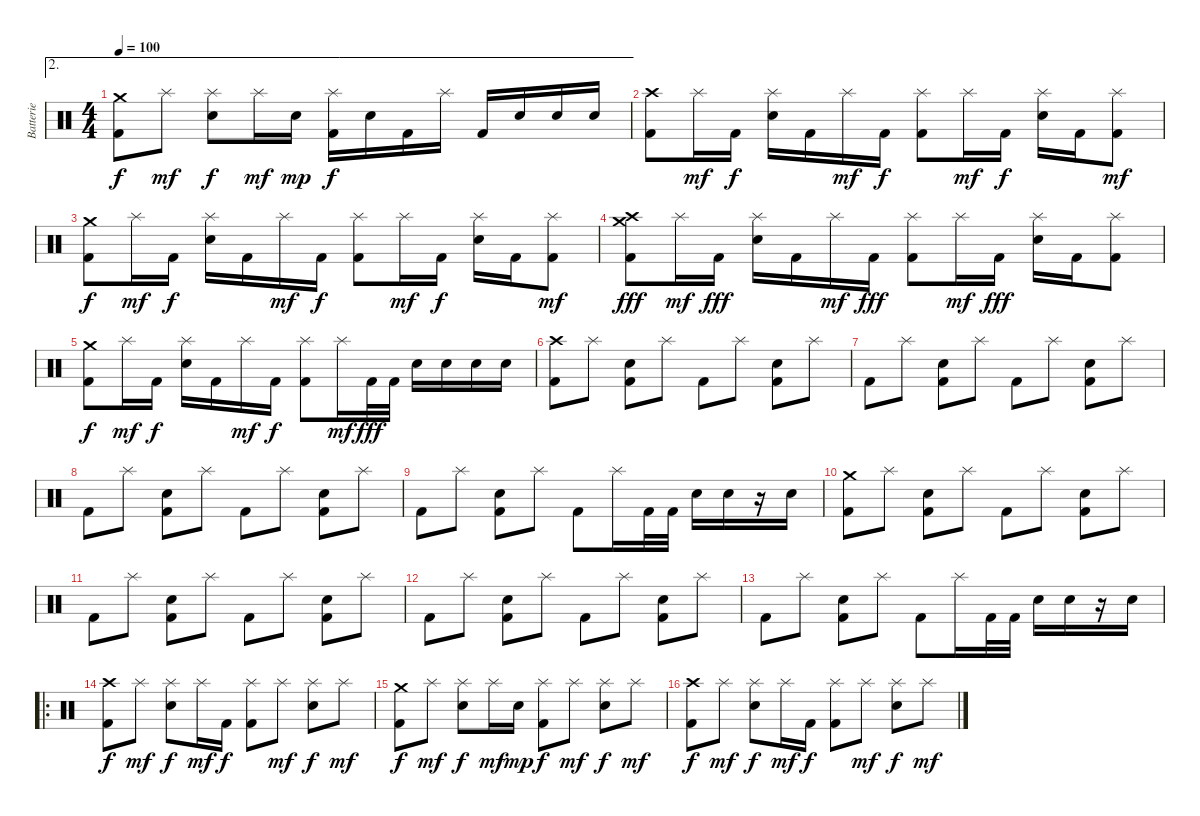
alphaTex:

\track ("Batterie" "Batterie") {instrument percussion}
\staff {score}
\articulation defaults
\ae 2
\ts (4 4)
\tempo 100
\clef neutral
\ks c
("Crash medium (hit)" "Kick (hit) 2").8{dy f} "Splash (hit)".8{dy mf} ("Splash (hit)" "Electric Snare (hit)").8{dy f} "Splash (hit)".16{dy mf} "Electric Snare (hit)".16{dy mp} ("Splash (hit)" "Kick (hit) 2").16{dy f} "Electric Snare (hit)".16 "Kick (hit) 2".16 "Splash (hit)".16 "Kick (hit) 2".16 "Electric Snare (hit)".16 "Electric Snare (hit)".16 "Electric Snare (hit)".16 |
("Crash high (hit)" "Kick (hit) 2").8 "Splash (hit)".16{dy mf} "Kick (hit) 2".16{dy f} ("Splash (hit)" "Electric Snare (hit)").16 "Kick (hit) 2".16 "Splash (hit)".16{dy mf} "Kick (hit) 2".16{dy f} ("Splash (hit)" "Kick (hit) 2").8 "Splash (hit)".16{dy mf} "Kick (hit) 2".16{dy f} ("Splash (hit)" "Electric Snare (hit)").16 "Kick (hit) 2".16 ("Splash (hit)" "Kick (hit) 2").8{dy mf} |
("Crash medium (hit)" "Kick (hit) 2").8{dy f} "Splash (hit)".16{dy mf} "Kick (hit) 2".16{dy f} ("Splash (hit)" "Electric Snare (hit)").16 "Kick (hit) 2".16 "Splash (hit)".16{dy mf} "Kick (hit) 2".16{dy f} ("Splash (hit)" "Kick (hit) 2").8 "Splash (hit)".16{dy mf} "Kick (hit) 2".16{dy f} ("Splash (hit)" "Electric Snare (hit)").16 "Kick (hit) 2".16 ("Splash (hit)" "Kick (hit) 2").8{dy mf} |
("Crash high (hit)" "Crash medium (hit)" "Kick (hit) 2").8{dy fff} "Splash (hit)".16{dy mf} "Kick (hit) 2".16{dy fff} ("Splash (hit)" "Electric Snare (hit)").16 "Kick (hit) 2".16 "Splash (hit)".16{dy mf} "Kick (hit) 2".16{dy fff} ("Splash (hit)" "Kick (hit) 2").8 "Splash (hit)".16{dy mf} "Kick (hit) 2".16{dy fff} ("Splash (hit)" "Electric Snare (hit)").16 "Kick (hit) 2".16 ("Splash (hit)" "Kick (hit) 2").8 |
("Crash medium (hit)" "Kick (hit) 2").8{dy f} "Splash (hit)".16{dy mf} "Kick (hit) 2".16{dy f} ("Splash (hit)" "Electric Snare (hit)").16 "Kick (hit) 2".16 "Splash (hit)".16{dy mf} "Kick (hit) 2".16{dy f} ("Splash (hit)" "Kick (hit) 2").8 "Splash (hit)".16{dy mf} "Kick (hit) 2".32{dy fff} "Kick (hit) 2".32 "Electric Snare (hit)".16 "Electric Snare (hit)".16 "Electric Snare (hit)".16 "Electric Snare (hit)".16 |
("Crash high (hit)" "Kick (hit) 2").8 "Splash (hit)".8 ("Electric Snare (hit)" "Kick (hit) 2").8 "Splash (hit)".8 "Kick (hit) 2".8 "Splash (hit)".8 ("Electric Snare (hit)" "Kick (hit) 2").8 "Splash (hit)".8 |
"Kick (hit) 2".8 "Splash (hit)".8 ("Electric Snare (hit)" "Kick (hit) 2").8 "Splash (hit)".8 "Kick (hit) 2".8 "Splash (hit)".8 ("Electric Snare (hit)" "Kick (hit) 2").8 "Splash (hit)".8 |
"Kick (hit) 2".8 "Splash (hit)".8 ("Electric Snare (hit)" "Kick (hit) 2").8 "Splash (hit)".8 "Kick (hit) 2".8 "Splash (hit)".8 ("Electric Snare (hit)" "Kick (hit) 2").8 "Splash (hit)".8 |
"Kick (hit) 2".8 "Splash (hit)".8 ("Electric Snare (hit)" "Kick (hit) 2").8 "Splash (hit)".8 "Kick (hit) 2".8 "Splash (hit)".16 "Kick (hit) 2".32 "Kick (hit) 2".32 "Electric Snare (hit)".16 "Electric Snare (hit)".16 r.16 "Electric Snare (hit)".16 |
("Crash medium (hit)" "Kick (hit) 2").8 "Splash (hit)".8 ("Electric Snare (hit)" "Kick (hit) 2").8 "Splash (hit)".8 "Kick (hit) 2".8 "Splash (hit)".8 ("Electric Snare (hit)" "Kick (hit) 2").8 "Splash (hit)".8 |
"Kick (hit) 2".8 "Splash (hit)".8 ("Electric Snare (hit)" "Kick (hit) 2").8 "Splash (hit)".8 "Kick (hit) 2".8 "Splash (hit)".8 ("Electric Snare (hit)" "Kick (hit) 2").8 "Splash (hit)".8 |
"Kick (hit) 2".8 "Splash (hit)".8 ("Electric Snare (hit)" "Kick (hit) 2").8 "Splash (hit)".8 "Kick (hit) 2".8 "Splash (hit)".8 ("Electric Snare (hit)" "Kick (hit) 2").8 "Splash (hit)".8 |
"Kick (hit) 2".8 "Splash (hit)".8 ("Electric Snare (hit)" "Kick (hit) 2").8 "Splash (hit)".8 "Kick (hit) 2".8 "Splash (hit)".16 "Kick (hit) 2".32 "Kick (hit) 2".32 "Electric Snare (hit)".16 "Electric Snare (hit)".16 r.16 "Electric Snare (hit)".16 |
\ro
("Crash high (hit)" "Kick (hit) 2").8{dy f} "Splash (hit)".8{dy mf} ("Splash (hit)" "Electric Snare (hit)").8{dy f} "Splash (hit)".16{dy mf} "Kick (hit) 2".16{dy f} ("Splash (hit)" "Kick (hit) 2").8 "Splash (hit)".8{dy mf} ("Splash (hit)" "Electric Snare (hit)").8{dy f} "Splash (hit)".8{dy mf} |
("Crash medium (hit)" "Kick (hit) 2").8{dy f} "Splash (hit)".8{dy mf} ("Splash (hit)" "Electric Snare (hit)").8{dy f} "Splash (hit)".16{dy mf} "Electric Snare (hit)".16{dy mp} ("Splash (hit)" "Kick (hit) 2").8{dy f} "Splash (hit)".8{dy mf} ("Splash (hit)" "Electric Snare (hit)").8{dy f} "Splash (hit)".8{dy mf} |
("Crash high (hit)" "Kick (hit) 2").8{dy f} "Splash (hit)".8{dy mf} ("Splash (hit)" "Electric Snare (hit)").8{dy f} "Splash (hit)".16{dy mf} "Kick (hit) 2".16{dy f} ("Splash (hit)" "Kick (hit) 2").8 "Splash (hit)".8{dy mf} ("Splash (hit)" "Electric Snare (hit)").8{dy f} "Splash (hit)".8{dy mf}
